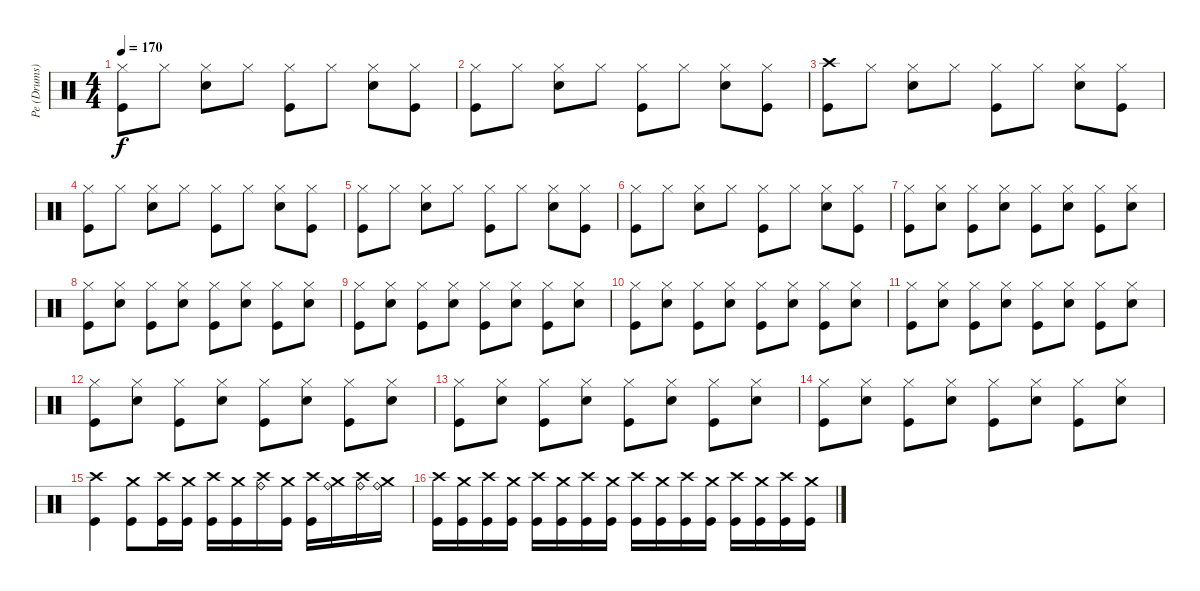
\track ("Pe (Drums)" "Pe (Drums)") {instrument percussion}
\staff {score}
\articulation defaults
\ts (4 4)
\tempo 170
\clef neutral
\ks c
("Hi-Hat (closed)" "Kick (hit)").8{dy f} "Hi-Hat (closed)".8 ("Hi-Hat (closed)" "Snare (hit) 2").8 "Hi-Hat (closed)".8 ("Hi-Hat (closed)" "Kick (hit)").8 "Hi-Hat (closed)".8 ("Hi-Hat (closed)" "Snare (hit) 2").8 ("Hi-Hat (closed)" "Kick (hit)").8 |
("Hi-Hat (closed)" "Kick (hit)").8 "Hi-Hat (closed)".8 ("Hi-Hat (closed)" "Snare (hit) 2").8 "Hi-Hat (closed)".8 ("Hi-Hat (closed)" "Kick (hit)").8 "Hi-Hat (closed)".8 ("Hi-Hat (closed)" "Snare (hit) 2").8 ("Hi-Hat (closed)" "Kick (hit)").8 |
("Crash high (hit)" "Kick (hit)").8 "Hi-Hat (closed)".8 ("Hi-Hat (closed)" "Snare (hit) 2").8 "Hi-Hat (closed)".8 ("Hi-Hat (closed)" "Kick (hit)").8 "Hi-Hat (closed)".8 ("Hi-Hat (closed)" "Snare (hit) 2").8 ("Hi-Hat (closed)" "Kick (hit)").8 |
("Hi-Hat (closed)" "Kick (hit)").8 "Hi-Hat (closed)".8 ("Hi-Hat (closed)" "Snare (hit) 2").8 "Hi-Hat (closed)".8 ("Hi-Hat (closed)" "Kick (hit)").8 "Hi-Hat (closed)".8 ("Hi-Hat (closed)" "Snare (hit) 2").8 ("Hi-Hat (closed)" "Kick (hit)").8 |
("Hi-Hat (closed)" "Kick (hit)").8 "Hi-Hat (closed)".8 ("Hi-Hat (closed)" "Snare (hit) 2").8 "Hi-Hat (closed)".8 ("Hi-Hat (closed)" "Kick (hit)").8 "Hi-Hat (closed)".8 ("Hi-Hat (closed)" "Snare (hit) 2").8 ("Hi-Hat (closed)" "Kick (hit)").8 |
("Hi-Hat (closed)" "Kick (hit)").8 "Hi-Hat (closed)".8 ("Hi-Hat (closed)" "Snare (hit) 2").8 "Hi-Hat (closed)".8 ("Hi-Hat (closed)" "Kick (hit)").8 "Hi-Hat (closed)".8 ("Hi-Hat (closed)" "Snare (hit) 2").8 ("Hi-Hat (closed)" "Kick (hit)").8 |
("Hi-Hat (closed)" "Kick (hit)").8 ("Hi-Hat (closed)" "Snare (hit) 2").8 ("Hi-Hat (closed)" "Kick (hit)").8 ("Hi-Hat (closed)" "Snare (hit) 2").8 ("Hi-Hat (closed)" "Kick (hit)").8 ("Hi-Hat (closed)" "Snare (hit) 2").8 ("Hi-Hat (closed)" "Kick (hit)").8 ("Hi-Hat (closed)" "Snare (hit) 2").8 |
("Hi-Hat (closed)" "Kick (hit)").8 ("Hi-Hat (closed)" "Snare (hit) 2").8 ("Hi-Hat (closed)" "Kick (hit)").8 ("Hi-Hat (closed)" "Snare (hit) 2").8 ("Hi-Hat (closed)" "Kick (hit)").8 ("Hi-Hat (closed)" "Snare (hit) 2").8 ("Hi-Hat (closed)" "Kick (hit)").8 ("Hi-Hat (closed)" "Snare (hit) 2").8 |
("Hi-Hat (closed)" "Kick (hit)").8 ("Hi-Hat (closed)" "Snare (hit) 2").8 ("Hi-Hat (closed)" "Kick (hit)").8 ("Hi-Hat (closed)" "Snare (hit) 2").8 ("Hi-Hat (closed)" "Kick (hit)").8 ("Hi-Hat (closed)" "Snare (hit) 2").8 ("Hi-Hat (closed)" "Kick (hit)").8 ("Hi-Hat (closed)" "Snare (hit) 2").8 |
("Hi-Hat (closed)" "Kick (hit)").8 ("Hi-Hat (closed)" "Snare (hit) 2").8 ("Hi-Hat (closed)" "Kick (hit)").8 ("Hi-Hat (closed)" "Snare (hit) 2").8 ("Hi-Hat (closed)" "Kick (hit)").8 ("Hi-Hat (closed)" "Snare (hit) 2").8 ("Hi-Hat (closed)" "Kick (hit)").8 ("Hi-Hat (closed)" "Snare (hit) 2").8 |
("Hi-Hat (closed)" "Kick (hit)").8 ("Hi-Hat (closed)" "Snare (hit) 2").8 ("Hi-Hat (closed)" "Kick (hit)").8 ("Hi-Hat (closed)" "Snare (hit) 2").8 ("Hi-Hat (closed)" "Kick (hit)").8 ("Hi-Hat (closed)" "Snare (hit) 2").8 ("Hi-Hat (closed)" "Kick (hit)").8 ("Hi-Hat (closed)" "Snare (hit) 2").8 |
("Hi-Hat (closed)" "Kick (hit)").8 ("Hi-Hat (closed)" "Snare (hit) 2").8 ("Hi-Hat (closed)" "Kick (hit)").8 ("Hi-Hat (closed)" "Snare (hit) 2").8 ("Hi-Hat (closed)" "Kick (hit)").8 ("Hi-Hat (closed)" "Snare (hit) 2").8 ("Hi-Hat (closed)" "Kick (hit)").8 ("Hi-Hat (closed)" "Snare (hit) 2").8 |
("Hi-Hat (closed)" "Kick (hit)").8 ("Hi-Hat (closed)" "Snare (hit) 2").8 ("Hi-Hat (closed)" "Kick (hit)").8 ("Hi-Hat (closed)" "Snare (hit) 2").8 ("Hi-Hat (closed)" "Kick (hit)").8 ("Hi-Hat (closed)" "Snare (hit) 2").8 ("Hi-Hat (closed)" "Kick (hit)").8 ("Hi-Hat (closed)" "Snare (hit) 2").8 |
("Hi-Hat (closed)" "Kick (hit)").8 ("Hi-Hat (closed)" "Snare (hit) 2").8 ("Hi-Hat (closed)" "Kick (hit)").8 ("Hi-Hat (closed)" "Snare (hit) 2").8 ("Hi-Hat (closed)" "Kick (hit)").8 ("Hi-Hat (closed)" "Snare (hit) 2").8 ("Hi-Hat (closed)" "Kick (hit)").8 ("Hi-Hat (closed)" "Snare (hit) 2").8 |
("Crash high (hit)" "Kick (hit)").4 ("Crash medium (hit)" "Kick (hit)").8 ("Crash high (hit)" "Kick (hit)").16 ("Crash medium (hit)" "Kick (hit)").16 ("Crash high (hit)" "Kick (hit)").16 ("Crash medium (hit)" "Kick (hit)").16 ("Crash high (hit)" "Ride (bell)").16 ("Crash medium (hit)" "Kick (hit)").16 ("Crash high (hit)" "Kick (hit)").16 ("Crash medium (hit)" "Ride (bell)").16 ("Crash high (hit)" "Ride (bell)").16 ("Crash medium (hit)" "Ride (bell)").16 |
("Crash high (hit)" "Kick (hit)").16 ("Crash medium (hit)" "Kick (hit)").16 ("Crash high (hit)" "Kick (hit)").16 ("Crash medium (hit)" "Kick (hit)").16 ("Crash high (hit)" "Kick (hit)").16 ("Crash medium (hit)" "Kick (hit)").16 ("Crash high (hit)" "Kick (hit)").16 ("Crash medium (hit)" "Kick (hit)").16 ("Crash high (hit)" "Kick (hit)").16 ("Crash medium (hit)" "Kick (hit)").16 ("Crash high (hit)" "Kick (hit)").16 ("Crash medium (hit)" "Kick (hit)").16 ("Crash high (hit)" "Kick (hit)").16 ("Crash medium (hit)" "Kick (hit)").16 ("Crash high (hit)" "Kick (hit)").16 ("Crash medium (hit)" "Kick (hit)").16
